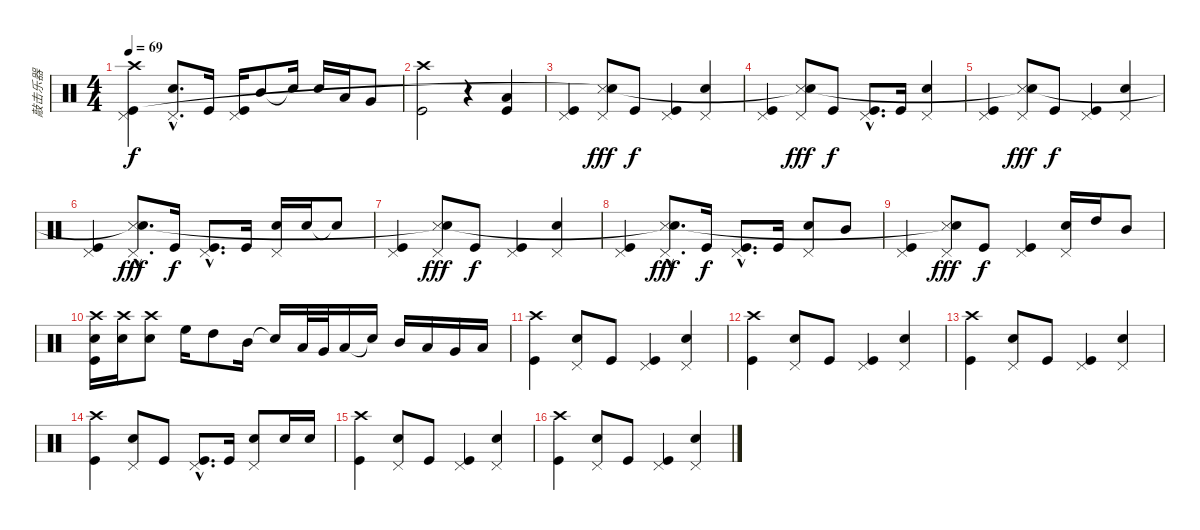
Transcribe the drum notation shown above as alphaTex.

\track ("敲击乐器" "敲击乐器") {instrument percussion}
\staff {score}
\articulation defaults
\ts (4 4)
\tempo 69
\clef neutral
\ks c
("Crash high (hit)" "Pedal Hi-Hat (hit)" "Kick (hit)").4{dy f} ("Pedal Hi-Hat (hit)"{hac} "Metronome (bell)"{hac}).8{d} "Kick (hit)".16 ("Pedal Hi-Hat (hit)" "Kick (hit)").16 "Mid Tom (hit)".8 "Snare (hit)"{t}.16 "Metronome (bell)".16 "Low Tom (hit)".16 "Very Low Tom (hit)".8 |
("Crash high (hit)" "Kick (hit)").2 r.4 ("Low Tom (hit)" "Kick (hit)").4 |
("Pedal Hi-Hat (hit)" "Kick (hit)").4 ("Pedal Hi-Hat (hit)" "Snare (side stick) 3" "Snare (hit)"{t}).8{dy fff} "Kick (hit)".8{dy f} ("Pedal Hi-Hat (hit)" "Kick (hit)").4 ("Pedal Hi-Hat (hit)" "Metronome (bell)").4 |
("Pedal Hi-Hat (hit)" "Kick (hit)").4 ("Pedal Hi-Hat (hit)" "Snare (side stick) 3" "Snare (hit)"{t}).8{dy fff} "Kick (hit)".8{dy f} ("Pedal Hi-Hat (hit)"{hac} "Kick (hit)"{hac}).8{d} "Kick (hit)".16 ("Pedal Hi-Hat (hit)" "Metronome (bell)").4 |
("Pedal Hi-Hat (hit)" "Kick (hit)").4 ("Pedal Hi-Hat (hit)" "Snare (side stick) 3" "Snare (hit)"{t}).8{dy fff} "Kick (hit)".8{dy f} ("Pedal Hi-Hat (hit)" "Kick (hit)").4 ("Pedal Hi-Hat (hit)" "Metronome (bell)").4 |
("Pedal Hi-Hat (hit)" "Kick (hit)").4 ("Pedal Hi-Hat (hit)"{hac} "Snare (side stick) 3"{hac} "Snare (hit)"{hac t}).8{d dy fff} "Kick (hit)".16{dy f} ("Pedal Hi-Hat (hit)"{hac} "Kick (hit)"{hac}).8{d} "Kick (hit)".16 ("Pedal Hi-Hat (hit)" "Metronome (bell)").16 "Metronome (bell)".16 "Snare (hit)"{t}.8 |
("Pedal Hi-Hat (hit)" "Kick (hit)").4 ("Pedal Hi-Hat (hit)" "Snare (side stick) 3" "Snare (hit)"{t}).8{dy fff} "Kick (hit)".8{dy f} ("Pedal Hi-Hat (hit)" "Kick (hit)").4 ("Pedal Hi-Hat (hit)" "Metronome (bell)").4 |
("Pedal Hi-Hat (hit)" "Kick (hit)").4 ("Pedal Hi-Hat (hit)"{hac} "Snare (side stick) 3"{hac} "Snare (hit)"{hac t}).8{d dy fff} "Kick (hit)".16{dy f} ("Pedal Hi-Hat (hit)"{hac} "Kick (hit)"{hac}).8{d} "Kick (hit)".16 ("Pedal Hi-Hat (hit)" "Metronome (bell)").8 "Mid Tom (hit)".8 |
("Pedal Hi-Hat (hit)" "Kick (hit)").4 ("Pedal Hi-Hat (hit)" "Snare (side stick) 3" "Snare (hit)"{t}).8{dy fff} "Kick (hit)".8{dy f} ("Pedal Hi-Hat (hit)" "Kick (hit)").4 ("Pedal Hi-Hat (hit)" "Metronome (bell)").16 "High Tom (hit)".16 "Mid Tom (hit)".8 |
("Crash high (hit)" "Metronome (bell)" "Kick (hit)").16 ("Crash high (hit)" "Metronome (bell)").16 ("Crash high (hit)" "Metronome (bell)").8 "High Floor Tom (hit)".16 "High Tom (hit)".8 "Mid Tom (hit)".16 "Snare (hit)"{t}.16 "Low Tom (hit)".32 "Very Low Tom (hit)".32 "Low Floor Tom (hit)".16 "Snare (hit)"{t}.16 "Mid Tom (hit)".16 "Low Tom (hit)".16 "Very Low Tom (hit)".16 "Low Floor Tom (hit)".16 |
("Crash high (hit)" "Kick (hit)").4 ("Pedal Hi-Hat (hit)" "Metronome (bell)").8 "Kick (hit)".8 ("Pedal Hi-Hat (hit)" "Kick (hit)").4 ("Pedal Hi-Hat (hit)" "Metronome (bell)").4 |
("Crash high (hit)" "Kick (hit)").4 ("Pedal Hi-Hat (hit)" "Metronome (bell)").8 "Kick (hit)".8 ("Pedal Hi-Hat (hit)" "Kick (hit)").4 ("Pedal Hi-Hat (hit)" "Metronome (bell)").4 |
("Crash high (hit)" "Kick (hit)").4 ("Pedal Hi-Hat (hit)" "Metronome (bell)").8 "Kick (hit)".8 ("Pedal Hi-Hat (hit)" "Kick (hit)").4 ("Pedal Hi-Hat (hit)" "Metronome (bell)").4 |
("Crash high (hit)" "Kick (hit)").4 ("Pedal Hi-Hat (hit)" "Metronome (bell)").8 "Kick (hit)".8 ("Pedal Hi-Hat (hit)"{hac} "Kick (hit)"{hac}).8{d} "Kick (hit)".16 ("Pedal Hi-Hat (hit)" "Metronome (bell)").8 "Metronome (bell)".16 "Metronome (bell)".16 |
("Crash high (hit)" "Kick (hit)").4 ("Pedal Hi-Hat (hit)" "Metronome (bell)").8 "Kick (hit)".8 ("Pedal Hi-Hat (hit)" "Kick (hit)").4 ("Pedal Hi-Hat (hit)" "Metronome (bell)").4 |
("Crash high (hit)" "Kick (hit)").4 ("Pedal Hi-Hat (hit)" "Metronome (bell)").8 "Kick (hit)".8 ("Pedal Hi-Hat (hit)" "Kick (hit)").4 ("Pedal Hi-Hat (hit)" "Metronome (bell)").4
